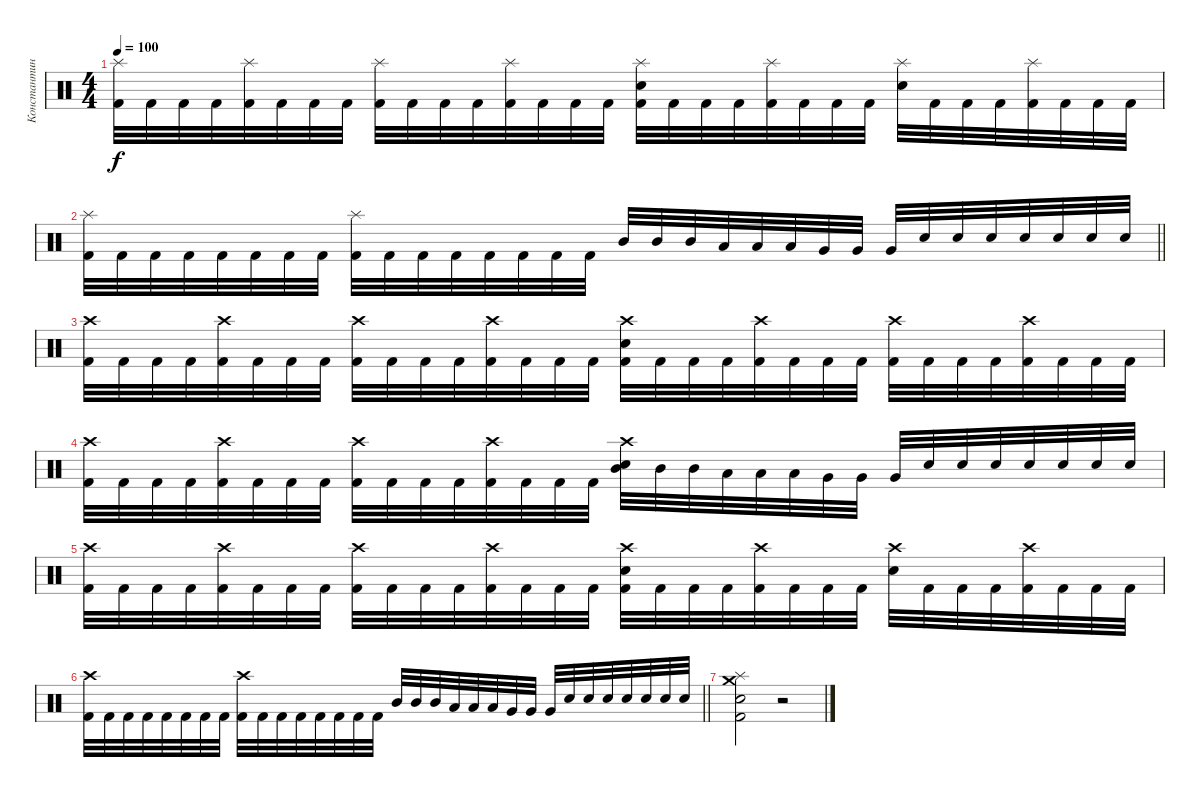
\track ("Константин \"Салян\" Сальников" "Константин") {instrument percussion}
\staff {score}
\articulation defaults
\ts (4 4)
\tempo 100
\clef neutral
\ks c
("Splash (hit)" "Kick (hit) 2").32{dy f} "Kick (hit) 2".32 "Kick (hit) 2".32 "Kick (hit) 2".32 ("Splash (hit)" "Kick (hit) 2").32 "Kick (hit) 2".32 "Kick (hit) 2".32 "Kick (hit) 2".32 ("Splash (hit)" "Kick (hit) 2").32 "Kick (hit) 2".32 "Kick (hit) 2".32 "Kick (hit) 2".32 ("Splash (hit)" "Kick (hit) 2").32 "Kick (hit) 2".32 "Kick (hit) 2".32 "Kick (hit) 2".32 ("Splash (hit)" "Kick (hit) 2" "Electric Snare (hit)").32 "Kick (hit) 2".32 "Kick (hit) 2".32 "Kick (hit) 2".32 ("Splash (hit)" "Kick (hit) 2").32 "Kick (hit) 2".32 "Kick (hit) 2".32 "Kick (hit) 2".32 ("Splash (hit)" "Electric Snare (hit)").32 "Kick (hit) 2".32 "Kick (hit) 2".32 "Kick (hit) 2".32 ("Splash (hit)" "Kick (hit) 2").32 "Kick (hit) 2".32 "Kick (hit) 2".32 "Kick (hit) 2".32 |
\barLineRight lightlight
("Splash (hit)" "Kick (hit) 2").32 "Kick (hit) 2".32 "Kick (hit) 2".32 "Kick (hit) 2".32 "Kick (hit) 2".32 "Kick (hit) 2".32 "Kick (hit) 2".32 "Kick (hit) 2".32 ("Splash (hit)" "Kick (hit) 2").32 "Kick (hit) 2".32 "Kick (hit) 2".32 "Kick (hit) 2".32 "Kick (hit) 2".32 "Kick (hit) 2".32 "Kick (hit) 2".32 "Kick (hit) 2".32 "Mid Tom (hit)".32 "Mid Tom (hit)".32 "Mid Tom (hit)".32 "Low Tom (hit)".32 "Low Tom (hit)".32 "Low Tom (hit)".32 "Very Low Tom (hit)".32 "Very Low Tom (hit)".32 "Very Low Tom (hit)".32 "Electric Snare (hit)".32 "Electric Snare (hit)".32 "Electric Snare (hit)".32 "Electric Snare (hit)".32 "Electric Snare (hit)".32 "Electric Snare (hit)".32 "Electric Snare (hit)".32 |
("Crash high (hit)" "Kick (hit) 2").32 "Kick (hit) 2".32 "Kick (hit) 2".32 "Kick (hit) 2".32 ("Crash high (hit)" "Kick (hit) 2").32 "Kick (hit) 2".32 "Kick (hit) 2".32 "Kick (hit) 2".32 ("Crash high (hit)" "Kick (hit) 2").32 "Kick (hit) 2".32 "Kick (hit) 2".32 "Kick (hit) 2".32 ("Crash high (hit)" "Kick (hit) 2").32 "Kick (hit) 2".32 "Kick (hit) 2".32 "Kick (hit) 2".32 ("Crash high (hit)" "Kick (hit) 2" "Electric Snare (hit)").32 "Kick (hit) 2".32 "Kick (hit) 2".32 "Kick (hit) 2".32 ("Crash high (hit)" "Kick (hit) 2").32 "Kick (hit) 2".32 "Kick (hit) 2".32 "Kick (hit) 2".32 ("Crash high (hit)" "Kick (hit) 2").32 "Kick (hit) 2".32 "Kick (hit) 2".32 "Kick (hit) 2".32 ("Crash high (hit)" "Kick (hit) 2").32 "Kick (hit) 2".32 "Kick (hit) 2".32 "Kick (hit) 2".32 |
("Crash high (hit)" "Kick (hit) 2").32 "Kick (hit) 2".32 "Kick (hit) 2".32 "Kick (hit) 2".32 ("Crash high (hit)" "Kick (hit) 2").32 "Kick (hit) 2".32 "Kick (hit) 2".32 "Kick (hit) 2".32 ("Crash high (hit)" "Kick (hit) 2").32 "Kick (hit) 2".32 "Kick (hit) 2".32 "Kick (hit) 2".32 ("Crash high (hit)" "Kick (hit) 2").32 "Kick (hit) 2".32 "Kick (hit) 2".32 "Kick (hit) 2".32 ("Crash high (hit)" "Mid Tom (hit)" "Electric Snare (hit)").32 "Mid Tom (hit)".32 "Mid Tom (hit)".32 "Low Tom (hit)".32 "Low Tom (hit)".32 "Low Tom (hit)".32 "Very Low Tom (hit)".32 "Very Low Tom (hit)".32 "Very Low Tom (hit)".32 "Electric Snare (hit)".32 "Electric Snare (hit)".32 "Electric Snare (hit)".32 "Electric Snare (hit)".32 "Electric Snare (hit)".32 "Electric Snare (hit)".32 "Electric Snare (hit)".32 |
("Crash high (hit)" "Kick (hit) 2").32 "Kick (hit) 2".32 "Kick (hit) 2".32 "Kick (hit) 2".32 ("Crash high (hit)" "Kick (hit) 2").32 "Kick (hit) 2".32 "Kick (hit) 2".32 "Kick (hit) 2".32 ("Crash high (hit)" "Kick (hit) 2").32 "Kick (hit) 2".32 "Kick (hit) 2".32 "Kick (hit) 2".32 ("Crash high (hit)" "Kick (hit) 2").32 "Kick (hit) 2".32 "Kick (hit) 2".32 "Kick (hit) 2".32 ("Crash high (hit)" "Kick (hit) 2" "Electric Snare (hit)").32 "Kick (hit) 2".32 "Kick (hit) 2".32 "Kick (hit) 2".32 ("Crash high (hit)" "Kick (hit) 2").32 "Kick (hit) 2".32 "Kick (hit) 2".32 "Kick (hit) 2".32 ("Crash high (hit)" "Electric Snare (hit)").32 "Kick (hit) 2".32 "Kick (hit) 2".32 "Kick (hit) 2".32 ("Crash high (hit)" "Kick (hit) 2").32 "Kick (hit) 2".32 "Kick (hit) 2".32 "Kick (hit) 2".32 |
\barLineRight lightlight
("Crash high (hit)" "Kick (hit) 2").32 "Kick (hit) 2".32 "Kick (hit) 2".32 "Kick (hit) 2".32 "Kick (hit) 2".32 "Kick (hit) 2".32 "Kick (hit) 2".32 "Kick (hit) 2".32 ("Crash high (hit)" "Kick (hit) 2").32 "Kick (hit) 2".32 "Kick (hit) 2".32 "Kick (hit) 2".32 "Kick (hit) 2".32 "Kick (hit) 2".32 "Kick (hit) 2".32 "Kick (hit) 2".32 "Mid Tom (hit)".32 "Mid Tom (hit)".32 "Mid Tom (hit)".32 "Low Tom (hit)".32 "Low Tom (hit)".32 "Low Tom (hit)".32 "Very Low Tom (hit)".32 "Very Low Tom (hit)".32 "Very Low Tom (hit)".32 "Electric Snare (hit)".32 "Electric Snare (hit)".32 "Electric Snare (hit)".32 "Electric Snare (hit)".32 "Electric Snare (hit)".32 "Electric Snare (hit)".32 "Electric Snare (hit)".32 |
("Splash (hit)" "Crash medium (hit)" "Kick (hit) 2" "Electric Snare (hit)").2 r.2
